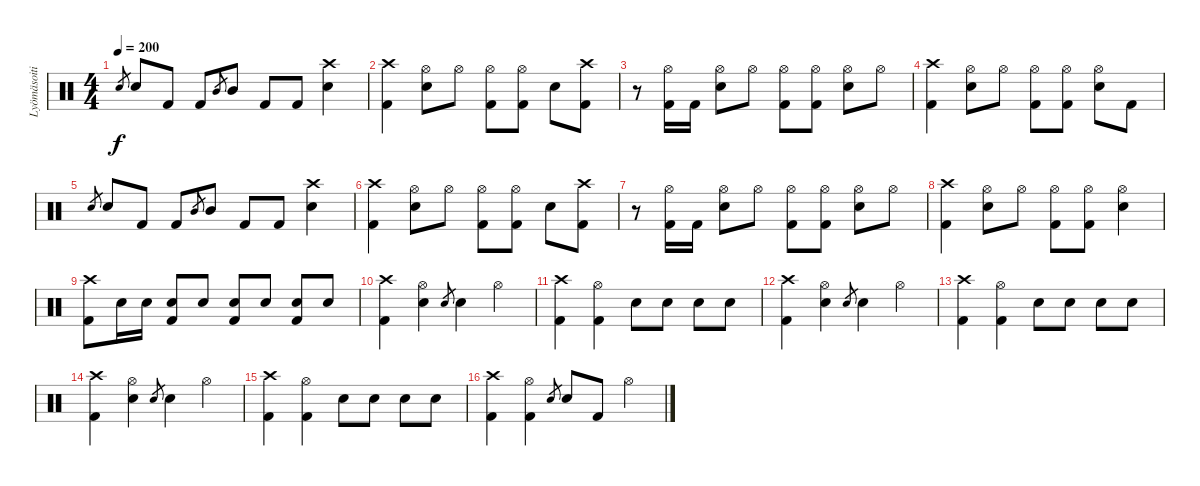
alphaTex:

\track ("Lyömäsoitin" "Lyömäsoiti") {instrument percussion}
\staff {score}
\articulation defaults
\ts (4 4)
\tempo 200
\clef neutral
\ks c "Snare (hit) 2".8{gr dy f} "Snare (hit) 2".8 "Kick (hit) 2".8 "Kick (hit) 2".8 "Mid Tom (hit)".8{gr} "Mid Tom (hit)".8 "Kick (hit) 2".8 "Kick (hit) 2".8
("Crash high (hit)" "Snare (hit) 2").4 |
("Crash high (hit)" "Kick (hit) 2").4 ("Hi-Hat (open)" "Snare (hit) 2").8 "Hi-Hat (open)".8 ("Hi-Hat (open)" "Kick (hit) 2").8 ("Hi-Hat (open)" "Kick (hit) 2").8 "Snare (hit) 2".8 ("Crash high (hit)" "Kick (hit) 2").8 |
r.8 ("Hi-Hat (open)" "Kick (hit) 2").16 "Kick (hit) 2".16 ("Hi-Hat (open)" "Snare (hit) 2").8 "Hi-Hat (open)".8 ("Hi-Hat (open)" "Kick (hit) 2").8 ("Hi-Hat (open)" "Kick (hit) 2").8 ("Hi-Hat (open)" "Snare (hit) 2").8 "Hi-Hat (open)".8 |
("Crash high (hit)" "Kick (hit) 2").4 ("Hi-Hat (open)" "Snare (hit) 2").8 "Hi-Hat (open)".8 ("Hi-Hat (open)" "Kick (hit) 2").8 ("Hi-Hat (open)" "Kick (hit) 2").8 ("Hi-Hat (open)" "Snare (hit) 2").8 "Kick (hit) 2".8 |
"Snare (hit) 2".8{gr} "Snare (hit) 2".8 "Kick (hit) 2".8 "Kick (hit) 2".8 "Mid Tom (hit)".8{gr} "Mid Tom (hit)".8 "Kick (hit) 2".8 "Kick (hit) 2".8 ("Crash high (hit)" "Snare (hit) 2").4 |
("Crash high (hit)" "Kick (hit) 2").4 ("Hi-Hat (open)" "Snare (hit) 2").8 "Hi-Hat (open)".8 ("Hi-Hat (open)" "Kick (hit) 2").8 ("Hi-Hat (open)" "Kick (hit) 2").8 "Snare (hit) 2".8 ("Crash high (hit)" "Kick (hit) 2").8 |
r.8 ("Hi-Hat (open)" "Kick (hit) 2").16 "Kick (hit) 2".16 ("Hi-Hat (open)" "Snare (hit) 2").8 "Hi-Hat (open)".8 ("Hi-Hat (open)" "Kick (hit) 2").8 ("Hi-Hat (open)" "Kick (hit) 2").8 ("Hi-Hat (open)" "Snare (hit) 2").8 "Hi-Hat (open)".8 |
("Crash high (hit)" "Kick (hit) 2").4 ("Hi-Hat (open)" "Snare (hit) 2").8 "Hi-Hat (open)".8 ("Hi-Hat (open)" "Kick (hit) 2").8 ("Hi-Hat (open)" "Kick (hit) 2").8 ("Hi-Hat (open)" "Snare (hit) 2").4 |
("Crash high (hit)" "Kick (hit) 2").8 "Snare (hit) 2".16 "Snare (hit) 2".16 ("Snare (hit) 2" "Kick (hit) 2").8 "Snare (hit) 2".8 ("Snare (hit) 2" "Kick (hit) 2").8 "Snare (hit) 2".8 ("Snare (hit) 2" "Kick (hit) 2").8 "Snare (hit) 2".8 |
("Crash high (hit)" "Kick (hit) 2").4 ("Hi-Hat (open)" "Snare (hit) 2").4 "Snare (hit) 2".8{gr} "Snare (hit) 2".4 "Hi-Hat (open)".4 |
("Crash high (hit)" "Kick (hit) 2").4 ("Hi-Hat (open)" "Kick (hit) 2").4 "Snare (hit) 2".8 "Snare (hit) 2".8 "Snare (hit) 2".8 "Snare (hit) 2".8 |
("Crash high (hit)" "Kick (hit) 2").4 ("Hi-Hat (open)" "Snare (hit) 2").4 "Snare (hit) 2".8{gr} "Snare (hit) 2".4 "Hi-Hat (open)".4 |
("Crash high (hit)" "Kick (hit) 2").4 ("Hi-Hat (open)" "Kick (hit) 2").4 "Snare (hit) 2".8 "Snare (hit) 2".8 "Snare (hit) 2".8 "Snare (hit) 2".8 |
("Crash high (hit)" "Kick (hit) 2").4 ("Hi-Hat (open)" "Snare (hit) 2").4 "Snare (hit) 2".8{gr} "Snare (hit) 2".4 "Hi-Hat (open)".4 |
("Crash high (hit)" "Kick (hit) 2").4 ("Hi-Hat (open)" "Kick (hit) 2").4 "Snare (hit) 2".8 "Snare (hit) 2".8 "Snare (hit) 2".8 "Snare (hit) 2".8 |
("Crash high (hit)" "Kick (hit) 2").4 ("Hi-Hat (open)" "Kick (hit) 2").4 "Snare (hit) 2".8{gr} "Snare (hit) 2".8 "Kick (hit) 2".8 "Hi-Hat (open)".4
